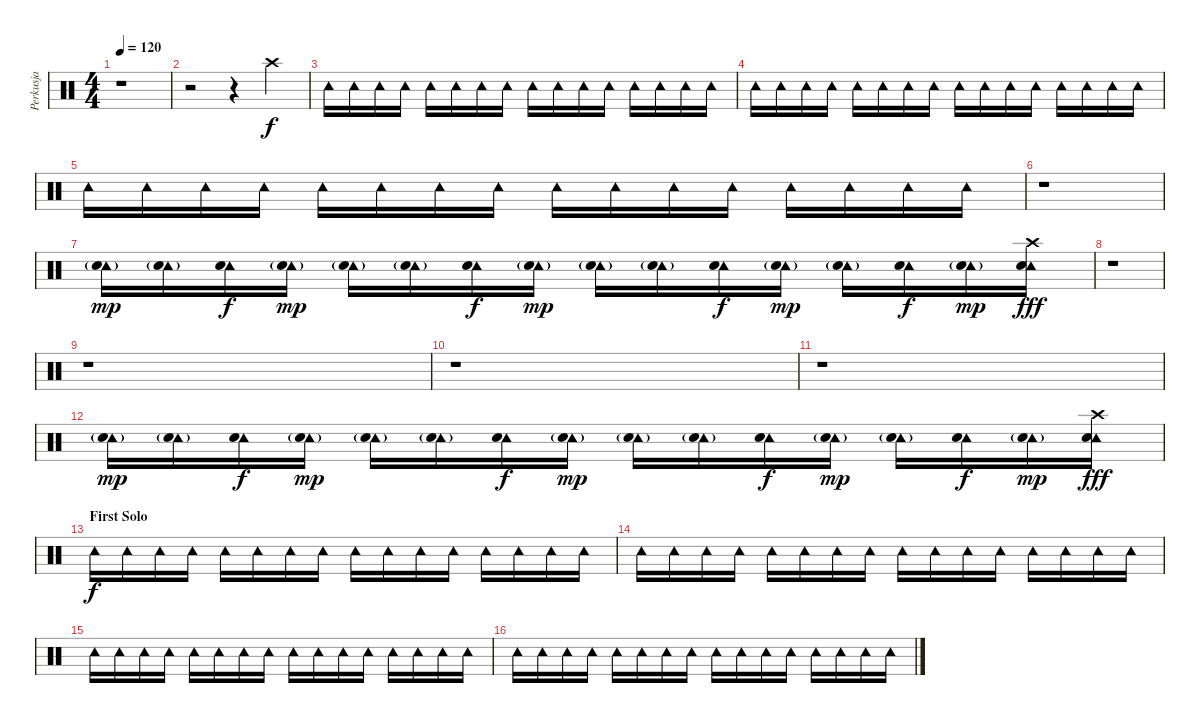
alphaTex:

\track ("Perkusja" "Perkusja") {instrument percussion}
\staff {score}
\articulation defaults
\ts (4 4)
\tempo 120
\clef neutral
\ks c
r.1{dy f} |
r.2 r.4 "Crash high (hit)".4 |
"Tambourine (hit)".16 "Tambourine (hit)".16 "Tambourine (hit)".16 "Tambourine (hit)".16 "Tambourine (hit)".16 "Tambourine (hit)".16 "Tambourine (hit)".16 "Tambourine (hit)".16 "Tambourine (hit)".16 "Tambourine (hit)".16 "Tambourine (hit)".16 "Tambourine (hit)".16 "Tambourine (hit)".16 "Tambourine (hit)".16 "Tambourine (hit)".16 "Tambourine (hit)".16 |
"Tambourine (hit)".16 "Tambourine (hit)".16 "Tambourine (hit)".16 "Tambourine (hit)".16 "Tambourine (hit)".16 "Tambourine (hit)".16 "Tambourine (hit)".16 "Tambourine (hit)".16 "Tambourine (hit)".16 "Tambourine (hit)".16 "Tambourine (hit)".16 "Tambourine (hit)".16 "Tambourine (hit)".16 "Tambourine (hit)".16 "Tambourine (hit)".16 "Tambourine (hit)".16 |
"Tambourine (hit)".16 "Tambourine (hit)".16 "Tambourine (hit)".16 "Tambourine (hit)".16 "Tambourine (hit)".16 "Tambourine (hit)".16 "Tambourine (hit)".16 "Tambourine (hit)".16 "Tambourine (hit)".16 "Tambourine (hit)".16 "Tambourine (hit)".16 "Tambourine (hit)".16 "Tambourine (hit)".16 "Tambourine (hit)".16 "Tambourine (hit)".16 "Tambourine (hit)".16 |
r.1 |
("Tambourine (hit)" "Electric Snare (hit)"{g}).16{dy mp} ("Tambourine (hit)" "Electric Snare (hit)"{g}).16 ("Tambourine (hit)" "Electric Snare (hit)").16{dy f} ("Tambourine (hit)" "Electric Snare (hit)"{g}).16{dy mp} ("Tambourine (hit)" "Electric Snare (hit)"{g}).16 ("Tambourine (hit)" "Electric Snare (hit)"{g}).16 ("Tambourine (hit)" "Electric Snare (hit)").16{dy f} ("Tambourine (hit)" "Electric Snare (hit)"{g}).16{dy mp} ("Tambourine (hit)" "Electric Snare (hit)"{g}).16 ("Tambourine (hit)" "Electric Snare (hit)"{g}).16 ("Tambourine (hit)" "Electric Snare (hit)").16{dy f} ("Tambourine (hit)" "Electric Snare (hit)"{g}).16{dy mp} ("Tambourine (hit)" "Electric Snare (hit)"{g}).16 ("Tambourine (hit)" "Electric Snare (hit)").16{dy f} ("Tambourine (hit)" "Electric Snare (hit)"{g}).16{dy mp} ("Tambourine (hit)" "Electric Snare (hit)" "Crash high (hit)").16{dy fff} |
r.1 |
r.1 |
r.1 |
r.1 |
("Tambourine (hit)" "Electric Snare (hit)"{g}).16{dy mp} ("Tambourine (hit)" "Electric Snare (hit)"{g}).16 ("Tambourine (hit)" "Electric Snare (hit)").16{dy f} ("Tambourine (hit)" "Electric Snare (hit)"{g}).16{dy mp} ("Tambourine (hit)" "Electric Snare (hit)"{g}).16 ("Tambourine (hit)" "Electric Snare (hit)"{g}).16 ("Tambourine (hit)" "Electric Snare (hit)").16{dy f} ("Tambourine (hit)" "Electric Snare (hit)"{g}).16{dy mp} ("Tambourine (hit)" "Electric Snare (hit)"{g}).16 ("Tambourine (hit)" "Electric Snare (hit)"{g}).16 ("Tambourine (hit)" "Electric Snare (hit)").16{dy f} ("Tambourine (hit)" "Electric Snare (hit)"{g}).16{dy mp} ("Tambourine (hit)" "Electric Snare (hit)"{g}).16 ("Tambourine (hit)" "Electric Snare (hit)").16{dy f} ("Tambourine (hit)" "Electric Snare (hit)"{g}).16{dy mp} ("Tambourine (hit)" "Electric Snare (hit)" "Crash high (hit)").16{dy fff} |
\section ("" "First Solo")
"Tambourine (hit)".16{dy f} "Tambourine (hit)".16 "Tambourine (hit)".16 "Tambourine (hit)".16 "Tambourine (hit)".16 "Tambourine (hit)".16 "Tambourine (hit)".16 "Tambourine (hit)".16 "Tambourine (hit)".16 "Tambourine (hit)".16 "Tambourine (hit)".16 "Tambourine (hit)".16 "Tambourine (hit)".16 "Tambourine (hit)".16 "Tambourine (hit)".16 "Tambourine (hit)".16 |
"Tambourine (hit)".16 "Tambourine (hit)".16 "Tambourine (hit)".16 "Tambourine (hit)".16 "Tambourine (hit)".16 "Tambourine (hit)".16 "Tambourine (hit)".16 "Tambourine (hit)".16 "Tambourine (hit)".16 "Tambourine (hit)".16 "Tambourine (hit)".16 "Tambourine (hit)".16 "Tambourine (hit)".16 "Tambourine (hit)".16 "Tambourine (hit)".16 "Tambourine (hit)".16 |
"Tambourine (hit)".16 "Tambourine (hit)".16 "Tambourine (hit)".16 "Tambourine (hit)".16 "Tambourine (hit)".16 "Tambourine (hit)".16 "Tambourine (hit)".16 "Tambourine (hit)".16 "Tambourine (hit)".16 "Tambourine (hit)".16 "Tambourine (hit)".16 "Tambourine (hit)".16 "Tambourine (hit)".16 "Tambourine (hit)".16 "Tambourine (hit)".16 "Tambourine (hit)".16 |
"Tambourine (hit)".16 "Tambourine (hit)".16 "Tambourine (hit)".16 "Tambourine (hit)".16 "Tambourine (hit)".16 "Tambourine (hit)".16 "Tambourine (hit)".16 "Tambourine (hit)".16 "Tambourine (hit)".16 "Tambourine (hit)".16 "Tambourine (hit)".16 "Tambourine (hit)".16 "Tambourine (hit)".16 "Tambourine (hit)".16 "Tambourine (hit)".16 "Tambourine (hit)".16
